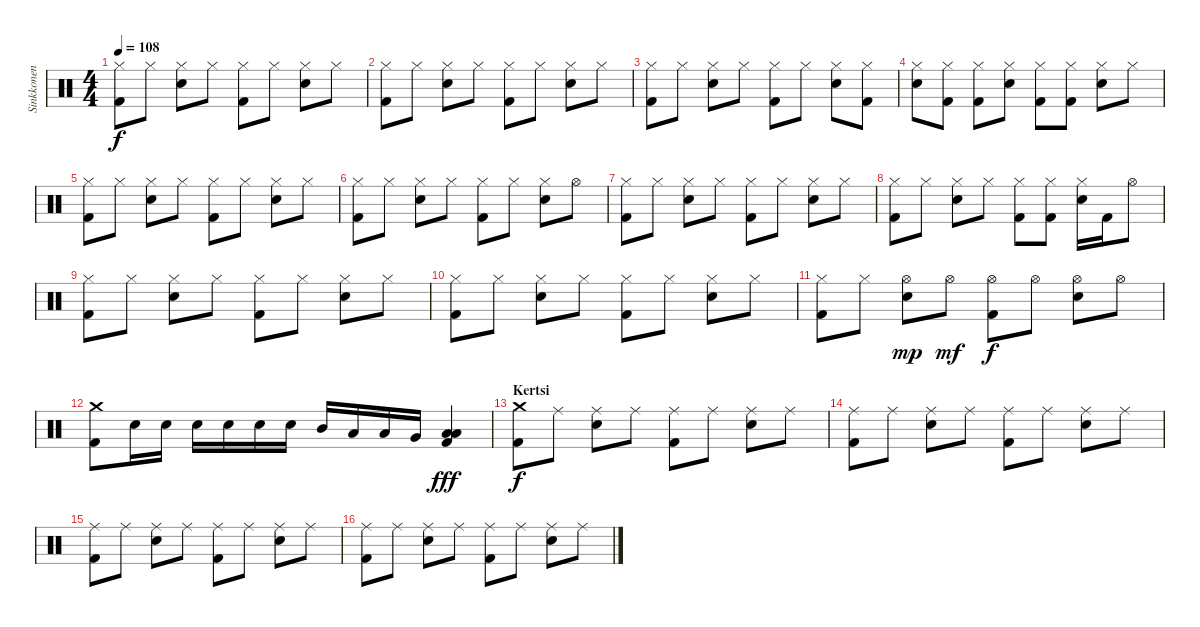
\track ("Sinkkonen" "Sinkkonen") {instrument percussion}
\staff {score}
\articulation defaults
\ts (4 4)
\tempo 108
\clef neutral
\ks c
("Kick (hit) 2" "Hi-Hat (closed)").8{dy f} "Hi-Hat (closed)".8 ("Hi-Hat (closed)" "Snare (hit) 2").8 "Hi-Hat (closed)".8 ("Kick (hit) 2" "Hi-Hat (closed)").8 "Hi-Hat (closed)".8 ("Hi-Hat (closed)" "Snare (hit) 2").8 "Hi-Hat (closed)".8 |
("Kick (hit) 2" "Hi-Hat (closed)").8 "Hi-Hat (closed)".8 ("Hi-Hat (closed)" "Snare (hit) 2").8 "Hi-Hat (closed)".8 ("Kick (hit) 2" "Hi-Hat (closed)").8 "Hi-Hat (closed)".8 ("Hi-Hat (closed)" "Snare (hit) 2").8 "Hi-Hat (closed)".8 |
("Kick (hit) 2" "Hi-Hat (closed)").8 "Hi-Hat (closed)".8 ("Hi-Hat (closed)" "Snare (hit) 2").8 "Hi-Hat (closed)".8 ("Kick (hit) 2" "Hi-Hat (closed)").8 "Hi-Hat (closed)".8 ("Hi-Hat (closed)" "Snare (hit) 2").8 ("Kick (hit) 2" "Hi-Hat (closed)").8 |
("Hi-Hat (closed)" "Snare (hit) 2").8 ("Kick (hit) 2" "Hi-Hat (closed)").8 ("Kick (hit) 2" "Hi-Hat (closed)").8 ("Hi-Hat (closed)" "Snare (hit) 2").8 ("Kick (hit) 2" "Hi-Hat (closed)").8 ("Kick (hit) 2" "Hi-Hat (closed)").8 ("Hi-Hat (closed)" "Snare (hit) 2").8 "Hi-Hat (closed)".8 |
("Kick (hit) 2" "Hi-Hat (closed)").8 "Hi-Hat (closed)".8 ("Hi-Hat (closed)" "Snare (hit) 2").8 "Hi-Hat (closed)".8 ("Kick (hit) 2" "Hi-Hat (closed)").8 "Hi-Hat (closed)".8 ("Hi-Hat (closed)" "Snare (hit) 2").8 "Hi-Hat (closed)".8 |
("Kick (hit) 2" "Hi-Hat (closed)").8 "Hi-Hat (closed)".8 ("Hi-Hat (closed)" "Snare (hit) 2").8 "Hi-Hat (closed)".8 ("Kick (hit) 2" "Hi-Hat (closed)").8 "Hi-Hat (closed)".8 ("Hi-Hat (closed)" "Snare (hit) 2").8 "Hi-Hat (open)".8 |
("Kick (hit) 2" "Hi-Hat (closed)").8 "Hi-Hat (closed)".8 ("Hi-Hat (closed)" "Snare (hit) 2").8 "Hi-Hat (closed)".8 ("Kick (hit) 2" "Hi-Hat (closed)").8 "Hi-Hat (closed)".8 ("Hi-Hat (closed)" "Snare (hit) 2").8 "Hi-Hat (closed)".8 |
("Kick (hit) 2" "Hi-Hat (closed)").8 "Hi-Hat (closed)".8 ("Hi-Hat (closed)" "Snare (hit) 2").8 "Hi-Hat (closed)".8 ("Kick (hit) 2" "Hi-Hat (closed)").8 ("Kick (hit) 2" "Hi-Hat (closed)").8 ("Hi-Hat (closed)" "Snare (hit) 2").16 "Kick (hit) 2".16 "Hi-Hat (open)".8 |
("Kick (hit) 2" "Hi-Hat (closed)").8 "Hi-Hat (closed)".8 ("Hi-Hat (closed)" "Snare (hit) 2").8 "Hi-Hat (closed)".8 ("Kick (hit) 2" "Hi-Hat (closed)").8 "Hi-Hat (closed)".8 ("Hi-Hat (closed)" "Snare (hit) 2").8 "Hi-Hat (closed)".8 |
("Kick (hit) 2" "Hi-Hat (closed)").8 "Hi-Hat (closed)".8 ("Hi-Hat (closed)" "Snare (hit) 2").8 "Hi-Hat (closed)".8 ("Kick (hit) 2" "Hi-Hat (closed)").8 "Hi-Hat (closed)".8 ("Hi-Hat (closed)" "Snare (hit) 2").8 "Hi-Hat (closed)".8 |
("Kick (hit) 2" "Hi-Hat (closed)").8 "Hi-Hat (closed)".8 ("Hi-Hat (open)" "Snare (hit) 2").8{dy mp} "Hi-Hat (open)".8{dy mf} ("Kick (hit) 2" "Hi-Hat (open)").8{dy f} "Hi-Hat (open)".8 ("Hi-Hat (open)" "Snare (hit) 2").8 "Hi-Hat (open)".8 |
("Kick (hit) 2" "Crash medium (hit)").8 "Snare (hit) 2".16 "Snare (hit) 2".16 "Snare (hit) 2".16 "Snare (hit) 2".16 "Snare (hit) 2".16 "Snare (hit) 2".16 "Mid Tom (hit)".16 "Low Tom (hit)".16 "Low Tom (hit)".16 "Very Low Tom (hit)".16 ("Kick (hit) 2" "Low Floor Tom (hit)" "Low Floor Tom (hit)").4{dy fff} |
\section ("" "Kertsi")
("Kick (hit) 2" "Crash medium (hit)").8{dy f} "Ride (middle)".8 ("Ride (middle)" "Snare (hit) 2").8 "Ride (middle)".8 ("Kick (hit) 2" "Ride (middle)").8 "Ride (middle)".8 ("Ride (middle)" "Snare (hit) 2").8 "Ride (middle)".8 |
("Kick (hit) 2" "Ride (middle)").8 "Ride (middle)".8 ("Ride (middle)" "Snare (hit) 2").8 "Ride (middle)".8 ("Kick (hit) 2" "Ride (middle)").8 "Ride (middle)".8 ("Ride (middle)" "Snare (hit) 2").8 "Ride (middle)".8 |
("Kick (hit) 2" "Ride (middle)").8 "Ride (middle)".8 ("Ride (middle)" "Snare (hit) 2").8 "Ride (middle)".8 ("Kick (hit) 2" "Ride (middle)").8 "Ride (middle)".8 ("Ride (middle)" "Snare (hit) 2").8 "Ride (middle)".8 |
("Kick (hit) 2" "Ride (middle)").8 "Ride (middle)".8 ("Ride (middle)" "Snare (hit) 2").8 "Ride (middle)".8 ("Kick (hit) 2" "Ride (middle)").8 "Ride (middle)".8 ("Ride (middle)" "Snare (hit) 2").8 "Ride (middle)".8
